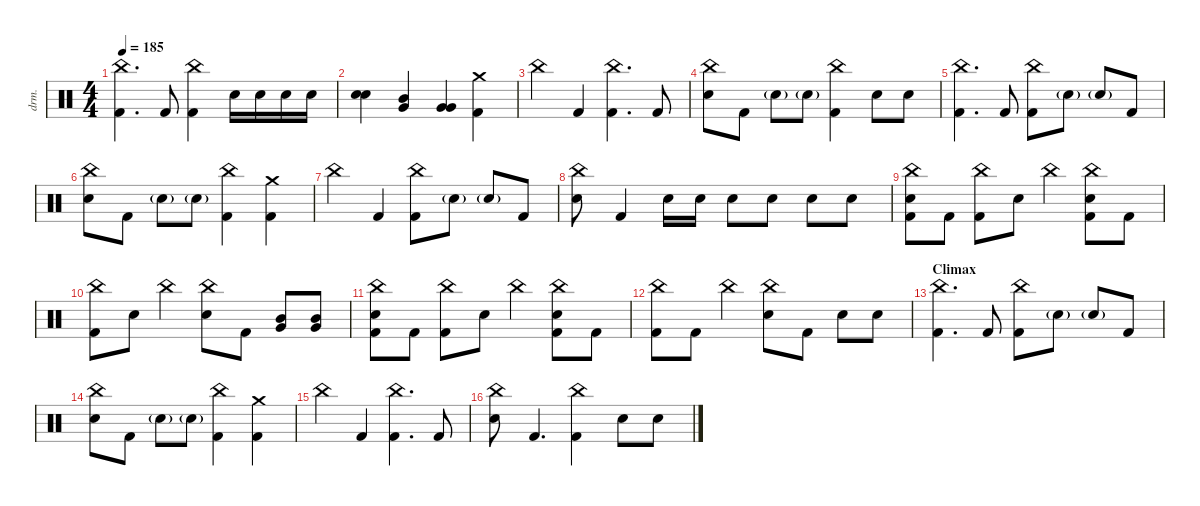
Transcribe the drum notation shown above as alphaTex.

\defaultSystemsLayout 4
\hideDynamics
\bracketExtendMode nobrackets
\track ("Drums - Šimon" "drm.") {instrument percussion}
\staff {score}
\articulation defaults
\ts (4 4)
\tempo 185
\clef neutral
\ks c
("China (hit)" "Kick (hit) 2").4{d dy ff} "Kick (hit) 2".8 ("Kick (hit) 2" "China (hit)").4 "Snare (hit) 2".16{dy mp} "Snare (hit) 2".16 "Snare (hit) 2".16 "Snare (hit) 2".16 |
("Snare (hit) 2" "Snare (hit) 2").4{dy ff} ("Very Low Tom (hit)" "Mid Tom (hit)").4 ("Very Low Tom (hit)" "Very Low Tom (hit)").4 ("Kick (hit) 2" "Crash medium (hit)").4 |
"China (hit)".4 "Kick (hit) 2".4 ("Kick (hit) 2" "China (hit)").4{d} "Kick (hit) 2".8 |
("Snare (hit) 2" "China (hit)").8 "Kick (hit) 2".8 "Snare (hit) 2"{g}.8{dy mp} "Snare (hit) 2"{g}.8 ("Kick (hit) 2" "China (hit)").4{dy ff} "Snare (hit) 2".8 "Snare (hit) 2".8 |
("China (hit)" "Kick (hit) 2").4{d} "Kick (hit) 2".8 ("Kick (hit) 2" "China (hit)").8 "Snare (hit) 2"{g}.8{dy mp} "Snare (hit) 2"{g}.8 "Kick (hit) 2".8{dy ff} |
("Snare (hit) 2" "China (hit)").8 "Kick (hit) 2".8 "Snare (hit) 2"{g}.8{dy mp} "Snare (hit) 2"{g}.8 ("Kick (hit) 2" "China (hit)").4{dy ff} ("Kick (hit) 2" "Crash medium (hit)").4 |
"China (hit)".4 "Kick (hit) 2".4 ("Kick (hit) 2" "China (hit)").8 "Snare (hit) 2"{g}.8{dy mp} "Snare (hit) 2"{g}.8 "Kick (hit) 2".8{dy ff} |
("Snare (hit) 2" "China (hit)").8 "Kick (hit) 2".4 "Snare (hit) 2".16 "Snare (hit) 2".16 "Snare (hit) 2".8{dy f} "Snare (hit) 2".8{dy ff} "Snare (hit) 2".8 "Snare (hit) 2".8 |
("China (hit)" "Snare (hit) 2" "Kick (hit) 2").8 "Kick (hit) 2".8 ("Kick (hit) 2" "China (hit)").8 "Snare (hit) 2".8 "China (hit)".4 ("China (hit)" "Snare (hit) 2" "Kick (hit) 2").8 "Kick (hit) 2".8 |
("Kick (hit) 2" "China (hit)").8 "Snare (hit) 2".8 "China (hit)".4 ("Snare (hit) 2" "China (hit)").8 "Kick (hit) 2".8 ("Very Low Tom (hit)" "Mid Tom (hit)").8 ("Very Low Tom (hit)" "Mid Tom (hit)").8 |
("China (hit)" "Snare (hit) 2" "Kick (hit) 2").8 "Kick (hit) 2".8 ("Kick (hit) 2" "China (hit)").8 "Snare (hit) 2".8 "China (hit)".4 ("China (hit)" "Snare (hit) 2" "Kick (hit) 2").8 "Kick (hit) 2".8 |
("Kick (hit) 2" "China (hit)").8 "Kick (hit) 2".8 "China (hit)".4 ("Snare (hit) 2" "China (hit)").8 "Kick (hit) 2".8 "Snare (hit) 2".8 "Snare (hit) 2".8 |
\section ("" "Climax")
("China (hit)" "Kick (hit) 2").4{d} "Kick (hit) 2".8 ("Kick (hit) 2" "China (hit)").8 "Snare (hit) 2"{g}.8{dy mp} "Snare (hit) 2"{g}.8 "Kick (hit) 2".8{dy ff} |
("Snare (hit) 2" "China (hit)").8 "Kick (hit) 2".8 "Snare (hit) 2"{g}.8{dy mp} "Snare (hit) 2"{g}.8 ("Kick (hit) 2" "China (hit)").4{dy ff} ("Kick (hit) 2" "Crash medium (hit)").4 |
"China (hit)".4 "Kick (hit) 2".4 ("Kick (hit) 2" "China (hit)").4{d} "Kick (hit) 2".8 |
("Snare (hit) 2" "China (hit)").8 "Kick (hit) 2".4{d} ("China (hit)" "Kick (hit) 2").4 "Snare (hit) 2".8 "Snare (hit) 2".8
